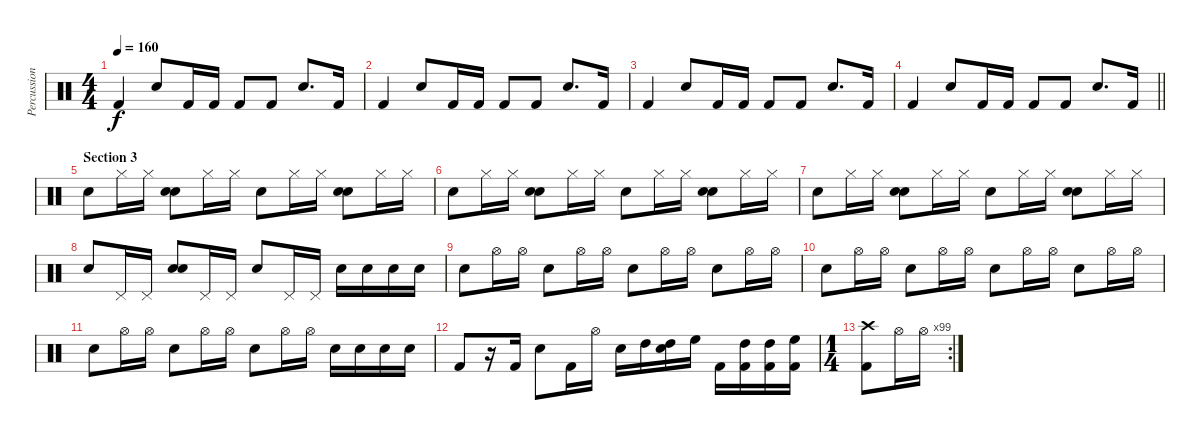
\track ("Percussion" "Percussion") {instrument percussion}
\staff {score}
\articulation defaults
\ts (4 4)
\tempo 160
\clef neutral
\ks c "Kick (hit) 2".4{dy f} "Snare (hit) 2".8 "Kick (hit) 2".16 "Kick (hit) 2".16 "Kick (hit) 2".8 "Kick (hit) 2".8 "Snare (hit) 2".8{d} "Kick (hit) 2".16
|
"Kick (hit) 2".4 "Snare (hit) 2".8 "Kick (hit) 2".16 "Kick (hit) 2".16 "Kick (hit) 2".8 "Kick (hit) 2".8 "Snare (hit) 2".8{d} "Kick (hit) 2".16 |
"Kick (hit) 2".4 "Snare (hit) 2".8 "Kick (hit) 2".16 "Kick (hit) 2".16 "Kick (hit) 2".8 "Kick (hit) 2".8 "Snare (hit) 2".8{d} "Kick (hit) 2".16 |
\barLineRight lightlight "Kick (hit) 2".4 "Snare (hit) 2".8 "Kick (hit) 2".16 "Kick (hit) 2".16 "Kick (hit) 2".8 "Kick (hit) 2".8 "Snare (hit) 2".8{d} "Kick (hit) 2".16
|
\section ("" "Section 3")
"Snare (hit) 2".8 "Hi-Hat (closed)".16 "Hi-Hat (closed)".16 ("Snare (hit) 2" "Electric Snare (hit)").8 "Hi-Hat (closed)".16 "Hi-Hat (closed)".16 "Snare (hit) 2".8 "Hi-Hat (closed)".16 "Hi-Hat (closed)".16 ("Snare (hit) 2" "Electric Snare (hit)").8 "Hi-Hat (closed)".16 "Hi-Hat (closed)".16 |
"Snare (hit) 2".8 "Hi-Hat (closed)".16 "Hi-Hat (closed)".16 ("Snare (hit) 2" "Electric Snare (hit)").8 "Hi-Hat (closed)".16 "Hi-Hat (closed)".16 "Snare (hit) 2".8 "Hi-Hat (closed)".16 "Hi-Hat (closed)".16 ("Snare (hit) 2" "Electric Snare (hit)").8 "Hi-Hat (closed)".16 "Hi-Hat (closed)".16 |
"Snare (hit) 2".8 "Hi-Hat (closed)".16 "Hi-Hat (closed)".16 ("Snare (hit) 2" "Electric Snare (hit)").8 "Hi-Hat (closed)".16 "Hi-Hat (closed)".16 "Snare (hit) 2".8 "Hi-Hat (closed)".16 "Hi-Hat (closed)".16 ("Snare (hit) 2" "Electric Snare (hit)").8 "Hi-Hat (closed)".16 "Hi-Hat (closed)".16 |
"Snare (hit) 2".8 "Pedal Hi-Hat (hit)".16 "Pedal Hi-Hat (hit)".16 ("Snare (hit) 2" "Electric Snare (hit)").8 "Pedal Hi-Hat (hit)".16 "Pedal Hi-Hat (hit)".16 "Snare (hit) 2".8 "Pedal Hi-Hat (hit)".16 "Pedal Hi-Hat (hit)".16 "Snare (hit) 2".16 "Snare (hit) 2".16 "Snare (hit) 2".16 "Snare (hit) 2".16 |
"Electric Snare (hit)".8 "Hi-Hat (open)".16 "Hi-Hat (open)".16 "Electric Snare (hit)".8 "Hi-Hat (open)".16 "Hi-Hat (open)".16 "Electric Snare (hit)".8 "Hi-Hat (open)".16 "Hi-Hat (open)".16 "Electric Snare (hit)".8 "Hi-Hat (open)".16 "Hi-Hat (open)".16 |
"Electric Snare (hit)".8 "Hi-Hat (open)".16 "Hi-Hat (open)".16 "Electric Snare (hit)".8 "Hi-Hat (open)".16 "Hi-Hat (open)".16 "Electric Snare (hit)".8 "Hi-Hat (open)".16 "Hi-Hat (open)".16 "Electric Snare (hit)".8 "Hi-Hat (open)".16 "Hi-Hat (open)".16 |
"Electric Snare (hit)".8 "Hi-Hat (open)".16 "Hi-Hat (open)".16 "Electric Snare (hit)".8 "Hi-Hat (open)".16 "Hi-Hat (open)".16 "Electric Snare (hit)".8 "Hi-Hat (open)".16 "Hi-Hat (open)".16 "Snare (hit) 2".16 "Snare (hit) 2".16 "Snare (hit) 2".16 "Snare (hit) 2".16 |
"Kick (hit) 2".8 r.16 "Kick (hit) 2".16 "Snare (hit) 2".8 "Kick (hit) 2".16 "Hi-Hat (open)".16 "Snare (hit) 2".16 "High Tom (hit)".16 ("High Tom (hit)" "Electric Snare (hit)").16 "High Floor Tom (hit)".16 "Kick (hit) 2".16 ("High Tom (hit)" "Kick (hit) 2").16 ("High Tom (hit)" "Kick (hit) 2").16 ("High Floor Tom (hit)" "Kick (hit) 2").16 |
\rc 99
\ts (1 4)
("Crash high (hit)" "Kick (hit) 2").8 "Hi-Hat (open)".16 "Hi-Hat (open)".16
